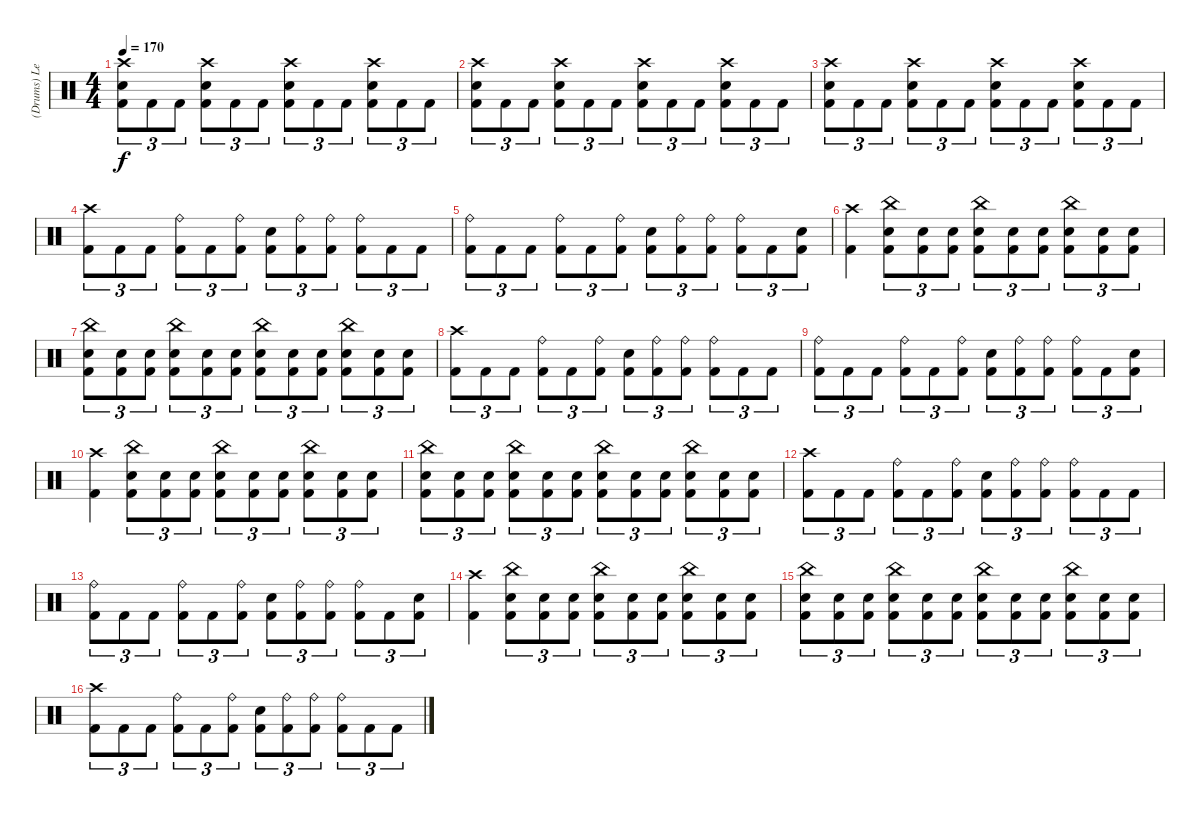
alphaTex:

\track ("(Drums) Leche" "(Drums) Le") {instrument percussion}
\staff {score}
\articulation defaults
\ts (4 4)
\tempo 170
\clef neutral
\ks c
("Crash high (hit)" "Electric Snare (hit)" "Kick (hit) 2").8{tu (3 2) dy f} "Kick (hit) 2".8{tu (3 2)} "Kick (hit) 2".8{tu (3 2)} ("Crash high (hit)" "Electric Snare (hit)" "Kick (hit) 2").8{tu (3 2)} "Kick (hit) 2".8{tu (3 2)} "Kick (hit) 2".8{tu (3 2)} ("Crash high (hit)" "Electric Snare (hit)" "Kick (hit) 2").8{tu (3 2)} "Kick (hit) 2".8{tu (3 2)} "Kick (hit) 2".8{tu (3 2)} ("Crash high (hit)" "Electric Snare (hit)" "Kick (hit) 2").8{tu (3 2)} "Kick (hit) 2".8{tu (3 2)} "Kick (hit) 2".8{tu (3 2)} |
("Crash high (hit)" "Electric Snare (hit)" "Kick (hit) 2").8{tu (3 2)} "Kick (hit) 2".8{tu (3 2)} "Kick (hit) 2".8{tu (3 2)} ("Crash high (hit)" "Electric Snare (hit)" "Kick (hit) 2").8{tu (3 2)} "Kick (hit) 2".8{tu (3 2)} "Kick (hit) 2".8{tu (3 2)} ("Crash high (hit)" "Electric Snare (hit)" "Kick (hit) 2").8{tu (3 2)} "Kick (hit) 2".8{tu (3 2)} "Kick (hit) 2".8{tu (3 2)} ("Crash high (hit)" "Electric Snare (hit)" "Kick (hit) 2").8{tu (3 2)} "Kick (hit) 2".8{tu (3 2)} "Kick (hit) 2".8{tu (3 2)} |
("Crash high (hit)" "Electric Snare (hit)" "Kick (hit) 2").8{tu (3 2)} "Kick (hit) 2".8{tu (3 2)} "Kick (hit) 2".8{tu (3 2)} ("Crash high (hit)" "Electric Snare (hit)" "Kick (hit) 2").8{tu (3 2)} "Kick (hit) 2".8{tu (3 2)} "Kick (hit) 2".8{tu (3 2)} ("Crash high (hit)" "Electric Snare (hit)" "Kick (hit) 2").8{tu (3 2)} "Kick (hit) 2".8{tu (3 2)} "Kick (hit) 2".8{tu (3 2)} ("Crash high (hit)" "Electric Snare (hit)" "Kick (hit) 2").8{tu (3 2)} "Kick (hit) 2".8{tu (3 2)} "Kick (hit) 2".8{tu (3 2)} |
("Crash high (hit)" "Kick (hit) 2").8{tu (3 2)} "Kick (hit) 2".8{tu (3 2)} "Kick (hit) 2".8{tu (3 2)} ("Ride (bell)" "Kick (hit) 2").8{tu (3 2)} "Kick (hit) 2".8{tu (3 2)} ("Ride (bell)" "Kick (hit) 2").8{tu (3 2)} ("Electric Snare (hit)" "Kick (hit) 2").8{tu (3 2)} ("Ride (bell)" "Kick (hit) 2").8{tu (3 2)} ("Ride (bell)" "Kick (hit) 2").8{tu (3 2)} ("Ride (bell)" "Kick (hit) 2").8{tu (3 2)} "Kick (hit) 2".8{tu (3 2)} "Kick (hit) 2".8{tu (3 2)} |
("Ride (bell)" "Kick (hit) 2").8{tu (3 2)} "Kick (hit) 2".8{tu (3 2)} "Kick (hit) 2".8{tu (3 2)} ("Ride (bell)" "Kick (hit) 2").8{tu (3 2)} "Kick (hit) 2".8{tu (3 2)} ("Ride (bell)" "Kick (hit) 2").8{tu (3 2)} ("Electric Snare (hit)" "Kick (hit) 2").8{tu (3 2)} ("Ride (bell)" "Kick (hit) 2").8{tu (3 2)} ("Ride (bell)" "Kick (hit) 2").8{tu (3 2)} ("Ride (bell)" "Kick (hit) 2").8{tu (3 2)} "Kick (hit) 2".8{tu (3 2)} ("Electric Snare (hit)" "Kick (hit) 2").8{tu (3 2)} |
("Crash high (hit)" "Kick (hit) 2").4 ("China (hit)" "Electric Snare (hit)" "Kick (hit) 2").8{tu (3 2)} ("Electric Snare (hit)" "Kick (hit) 2").8{tu (3 2)} ("Electric Snare (hit)" "Kick (hit) 2").8{tu (3 2)} ("China (hit)" "Electric Snare (hit)" "Kick (hit) 2").8{tu (3 2)} ("Electric Snare (hit)" "Kick (hit) 2").8{tu (3 2)} ("Electric Snare (hit)" "Kick (hit) 2").8{tu (3 2)} ("China (hit)" "Electric Snare (hit)" "Kick (hit) 2").8{tu (3 2)} ("Electric Snare (hit)" "Kick (hit) 2").8{tu (3 2)} ("Electric Snare (hit)" "Kick (hit) 2").8{tu (3 2)} |
("China (hit)" "Electric Snare (hit)" "Kick (hit) 2").8{tu (3 2)} ("Electric Snare (hit)" "Kick (hit) 2").8{tu (3 2)} ("Electric Snare (hit)" "Kick (hit) 2").8{tu (3 2)} ("China (hit)" "Electric Snare (hit)" "Kick (hit) 2").8{tu (3 2)} ("Electric Snare (hit)" "Kick (hit) 2").8{tu (3 2)} ("Electric Snare (hit)" "Kick (hit) 2").8{tu (3 2)} ("China (hit)" "Electric Snare (hit)" "Kick (hit) 2").8{tu (3 2)} ("Electric Snare (hit)" "Kick (hit) 2").8{tu (3 2)} ("Electric Snare (hit)" "Kick (hit) 2").8{tu (3 2)} ("China (hit)" "Electric Snare (hit)" "Kick (hit) 2").8{tu (3 2)} ("Electric Snare (hit)" "Kick (hit) 2").8{tu (3 2)} ("Electric Snare (hit)" "Kick (hit) 2").8{tu (3 2)} |
("Crash high (hit)" "Kick (hit) 2").8{tu (3 2)} "Kick (hit) 2".8{tu (3 2)} "Kick (hit) 2".8{tu (3 2)} ("Ride (bell)" "Kick (hit) 2").8{tu (3 2)} "Kick (hit) 2".8{tu (3 2)} ("Ride (bell)" "Kick (hit) 2").8{tu (3 2)} ("Electric Snare (hit)" "Kick (hit) 2").8{tu (3 2)} ("Ride (bell)" "Kick (hit) 2").8{tu (3 2)} ("Ride (bell)" "Kick (hit) 2").8{tu (3 2)} ("Ride (bell)" "Kick (hit) 2").8{tu (3 2)} "Kick (hit) 2".8{tu (3 2)} "Kick (hit) 2".8{tu (3 2)} |
("Ride (bell)" "Kick (hit) 2").8{tu (3 2)} "Kick (hit) 2".8{tu (3 2)} "Kick (hit) 2".8{tu (3 2)} ("Ride (bell)" "Kick (hit) 2").8{tu (3 2)} "Kick (hit) 2".8{tu (3 2)} ("Ride (bell)" "Kick (hit) 2").8{tu (3 2)} ("Electric Snare (hit)" "Kick (hit) 2").8{tu (3 2)} ("Ride (bell)" "Kick (hit) 2").8{tu (3 2)} ("Ride (bell)" "Kick (hit) 2").8{tu (3 2)} ("Ride (bell)" "Kick (hit) 2").8{tu (3 2)} "Kick (hit) 2".8{tu (3 2)} ("Electric Snare (hit)" "Kick (hit) 2").8{tu (3 2)} |
("Crash high (hit)" "Kick (hit) 2").4 ("China (hit)" "Electric Snare (hit)" "Kick (hit) 2").8{tu (3 2)} ("Electric Snare (hit)" "Kick (hit) 2").8{tu (3 2)} ("Electric Snare (hit)" "Kick (hit) 2").8{tu (3 2)} ("China (hit)" "Electric Snare (hit)" "Kick (hit) 2").8{tu (3 2)} ("Electric Snare (hit)" "Kick (hit) 2").8{tu (3 2)} ("Electric Snare (hit)" "Kick (hit) 2").8{tu (3 2)} ("China (hit)" "Electric Snare (hit)" "Kick (hit) 2").8{tu (3 2)} ("Electric Snare (hit)" "Kick (hit) 2").8{tu (3 2)} ("Electric Snare (hit)" "Kick (hit) 2").8{tu (3 2)} |
("China (hit)" "Electric Snare (hit)" "Kick (hit) 2").8{tu (3 2)} ("Electric Snare (hit)" "Kick (hit) 2").8{tu (3 2)} ("Electric Snare (hit)" "Kick (hit) 2").8{tu (3 2)} ("China (hit)" "Electric Snare (hit)" "Kick (hit) 2").8{tu (3 2)} ("Electric Snare (hit)" "Kick (hit) 2").8{tu (3 2)} ("Electric Snare (hit)" "Kick (hit) 2").8{tu (3 2)} ("China (hit)" "Electric Snare (hit)" "Kick (hit) 2").8{tu (3 2)} ("Electric Snare (hit)" "Kick (hit) 2").8{tu (3 2)} ("Electric Snare (hit)" "Kick (hit) 2").8{tu (3 2)} ("China (hit)" "Electric Snare (hit)" "Kick (hit) 2").8{tu (3 2)} ("Electric Snare (hit)" "Kick (hit) 2").8{tu (3 2)} ("Electric Snare (hit)" "Kick (hit) 2").8{tu (3 2)} |
("Crash high (hit)" "Kick (hit) 2").8{tu (3 2)} "Kick (hit) 2".8{tu (3 2)} "Kick (hit) 2".8{tu (3 2)} ("Ride (bell)" "Kick (hit) 2").8{tu (3 2)} "Kick (hit) 2".8{tu (3 2)} ("Ride (bell)" "Kick (hit) 2").8{tu (3 2)} ("Electric Snare (hit)" "Kick (hit) 2").8{tu (3 2)} ("Ride (bell)" "Kick (hit) 2").8{tu (3 2)} ("Ride (bell)" "Kick (hit) 2").8{tu (3 2)} ("Ride (bell)" "Kick (hit) 2").8{tu (3 2)} "Kick (hit) 2".8{tu (3 2)} "Kick (hit) 2".8{tu (3 2)} |
("Ride (bell)" "Kick (hit) 2").8{tu (3 2)} "Kick (hit) 2".8{tu (3 2)} "Kick (hit) 2".8{tu (3 2)} ("Ride (bell)" "Kick (hit) 2").8{tu (3 2)} "Kick (hit) 2".8{tu (3 2)} ("Ride (bell)" "Kick (hit) 2").8{tu (3 2)} ("Electric Snare (hit)" "Kick (hit) 2").8{tu (3 2)} ("Ride (bell)" "Kick (hit) 2").8{tu (3 2)} ("Ride (bell)" "Kick (hit) 2").8{tu (3 2)} ("Ride (bell)" "Kick (hit) 2").8{tu (3 2)} "Kick (hit) 2".8{tu (3 2)} ("Electric Snare (hit)" "Kick (hit) 2").8{tu (3 2)} |
("Crash high (hit)" "Kick (hit) 2").4 ("China (hit)" "Electric Snare (hit)" "Kick (hit) 2").8{tu (3 2)} ("Electric Snare (hit)" "Kick (hit) 2").8{tu (3 2)} ("Electric Snare (hit)" "Kick (hit) 2").8{tu (3 2)} ("China (hit)" "Electric Snare (hit)" "Kick (hit) 2").8{tu (3 2)} ("Electric Snare (hit)" "Kick (hit) 2").8{tu (3 2)} ("Electric Snare (hit)" "Kick (hit) 2").8{tu (3 2)} ("China (hit)" "Electric Snare (hit)" "Kick (hit) 2").8{tu (3 2)} ("Electric Snare (hit)" "Kick (hit) 2").8{tu (3 2)} ("Electric Snare (hit)" "Kick (hit) 2").8{tu (3 2)} |
("China (hit)" "Electric Snare (hit)" "Kick (hit) 2").8{tu (3 2)} ("Electric Snare (hit)" "Kick (hit) 2").8{tu (3 2)} ("Electric Snare (hit)" "Kick (hit) 2").8{tu (3 2)} ("China (hit)" "Electric Snare (hit)" "Kick (hit) 2").8{tu (3 2)} ("Electric Snare (hit)" "Kick (hit) 2").8{tu (3 2)} ("Electric Snare (hit)" "Kick (hit) 2").8{tu (3 2)} ("China (hit)" "Electric Snare (hit)" "Kick (hit) 2").8{tu (3 2)} ("Electric Snare (hit)" "Kick (hit) 2").8{tu (3 2)} ("Electric Snare (hit)" "Kick (hit) 2").8{tu (3 2)} ("China (hit)" "Electric Snare (hit)" "Kick (hit) 2").8{tu (3 2)} ("Electric Snare (hit)" "Kick (hit) 2").8{tu (3 2)} ("Electric Snare (hit)" "Kick (hit) 2").8{tu (3 2)} |
("Crash high (hit)" "Kick (hit) 2").8{tu (3 2)} "Kick (hit) 2".8{tu (3 2)} "Kick (hit) 2".8{tu (3 2)} ("Ride (bell)" "Kick (hit) 2").8{tu (3 2)} "Kick (hit) 2".8{tu (3 2)} ("Ride (bell)" "Kick (hit) 2").8{tu (3 2)} ("Electric Snare (hit)" "Kick (hit) 2").8{tu (3 2)} ("Ride (bell)" "Kick (hit) 2").8{tu (3 2)} ("Ride (bell)" "Kick (hit) 2").8{tu (3 2)} ("Ride (bell)" "Kick (hit) 2").8{tu (3 2)} "Kick (hit) 2".8{tu (3 2)} "Kick (hit) 2".8{tu (3 2)}
